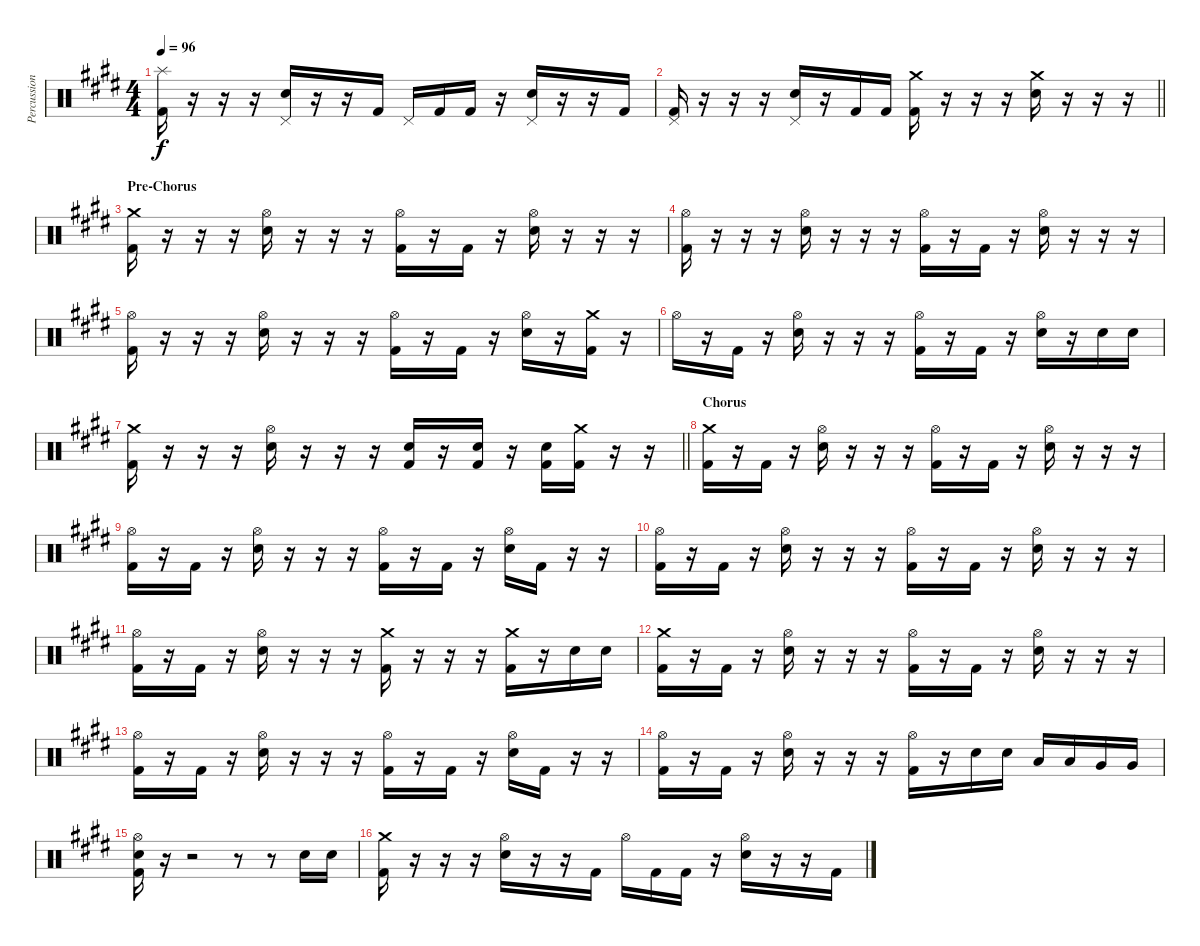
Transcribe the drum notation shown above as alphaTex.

\track ("Percussioni" "Percussion") {instrument percussion}
\staff {score}
\articulation defaults
\ts (4 4)
\tempo 96
\clef neutral
\ks c#minor
("Kick (hit) 2" "Splash (hit)").16{dy f} r.16 r.16 r.16 ("Electric Snare (hit)" "Pedal Hi-Hat (hit)").16 r.16 r.16 "Kick (hit) 2".16 "Pedal Hi-Hat (hit)".16 "Kick (hit) 2".16 "Kick (hit) 2".16 r.16 ("Electric Snare (hit)" "Pedal Hi-Hat (hit)").16 r.16 r.16 "Kick (hit) 2".16 |
\barLineRight lightlight
("Kick (hit) 2" "Pedal Hi-Hat (hit)").16 r.16 r.16 r.16 ("Electric Snare (hit)" "Pedal Hi-Hat (hit)").16 r.16 "Kick (hit) 2".16 "Kick (hit) 2".16 ("Kick (hit) 2" "Crash medium (hit)").16 r.16 r.16 r.16 ("Electric Snare (hit)" "Crash medium (hit)").16 r.16 r.16 r.16 |
\section ("" "Pre-Chorus")
("Kick (hit) 2" "Crash medium (hit)").16 r.16 r.16 r.16 ("Electric Snare (hit)" "Hi-Hat (open)").16 r.16 r.16 r.16 ("Kick (hit) 2" "Hi-Hat (open)").16 r.16 "Kick (hit) 2".16 r.16 ("Electric Snare (hit)" "Hi-Hat (open)").16 r.16 r.16 r.16 |
("Kick (hit) 2" "Hi-Hat (open)").16 r.16 r.16 r.16 ("Electric Snare (hit)" "Hi-Hat (open)").16 r.16 r.16 r.16 ("Kick (hit) 2" "Hi-Hat (open)").16 r.16 "Kick (hit) 2".16 r.16 ("Electric Snare (hit)" "Hi-Hat (open)").16 r.16 r.16 r.16 |
("Kick (hit) 2" "Hi-Hat (open)").16 r.16 r.16 r.16 ("Electric Snare (hit)" "Hi-Hat (open)").16 r.16 r.16 r.16 ("Kick (hit) 2" "Hi-Hat (open)").16 r.16 "Kick (hit) 2".16 r.16 ("Electric Snare (hit)" "Hi-Hat (open)").16 r.16 ("Kick (hit) 2" "Crash medium (hit)").16 r.16 |
"Hi-Hat (open)".16 r.16 "Kick (hit) 2".16 r.16 ("Electric Snare (hit)" "Hi-Hat (open)").16 r.16 r.16 r.16 ("Kick (hit) 2" "Hi-Hat (open)").16 r.16 "Kick (hit) 2".16 r.16 ("Electric Snare (hit)" "Hi-Hat (open)").16 r.16 "Electric Snare (hit)".16 "Electric Snare (hit)".16 |
\barLineRight lightlight
\ks e
("Kick (hit) 2" "Crash medium (hit)").16 r.16 r.16 r.16 ("Electric Snare (hit)" "Hi-Hat (open)").16 r.16 r.16 r.16 ("Kick (hit) 2" "Electric Snare (hit)").16 r.16 ("Electric Snare (hit)" "Kick (hit) 2").16 r.16 ("Electric Snare (hit)" "Kick (hit) 2").16 ("Kick (hit) 2" "Crash medium (hit)").16 r.16 r.16 |
\section ("" "Chorus")
\ks c#minor
("Kick (hit) 2" "Crash medium (hit)").16 r.16 "Kick (hit) 2".16 r.16 ("Electric Snare (hit)" "Hi-Hat (open)").16 r.16 r.16 r.16 ("Kick (hit) 2" "Hi-Hat (open)").16 r.16 "Kick (hit) 2".16 r.16 ("Electric Snare (hit)" "Hi-Hat (open)").16 r.16 r.16 r.16 |
("Kick (hit) 2" "Hi-Hat (open)").16 r.16 "Kick (hit) 2".16 r.16 ("Electric Snare (hit)" "Hi-Hat (open)").16 r.16 r.16 r.16 ("Kick (hit) 2" "Hi-Hat (open)").16 r.16 "Kick (hit) 2".16 r.16 ("Electric Snare (hit)" "Hi-Hat (open)").16 "Kick (hit) 2".16 r.16 r.16 |
("Kick (hit) 2" "Hi-Hat (open)").16 r.16 "Kick (hit) 2".16 r.16 ("Electric Snare (hit)" "Hi-Hat (open)").16 r.16 r.16 r.16 ("Kick (hit) 2" "Hi-Hat (open)").16 r.16 "Kick (hit) 2".16 r.16 ("Electric Snare (hit)" "Hi-Hat (open)").16 r.16 r.16 r.16 |
\ks e
("Kick (hit) 2" "Hi-Hat (open)").16 r.16 "Kick (hit) 2".16 r.16 ("Electric Snare (hit)" "Hi-Hat (open)").16 r.16 r.16 r.16 ("Kick (hit) 2" "Crash medium (hit)").16 r.16 r.16 r.16 ("Kick (hit) 2" "Crash medium (hit)").16 r.16 "Electric Snare (hit)".16 "Electric Snare (hit)".16 |
\ks c#minor
("Kick (hit) 2" "Crash medium (hit)").16 r.16 "Kick (hit) 2".16 r.16 ("Electric Snare (hit)" "Hi-Hat (open)").16 r.16 r.16 r.16 ("Kick (hit) 2" "Hi-Hat (open)").16 r.16 "Kick (hit) 2".16 r.16 ("Electric Snare (hit)" "Hi-Hat (open)").16 r.16 r.16 r.16 |
("Kick (hit) 2" "Hi-Hat (open)").16 r.16 "Kick (hit) 2".16 r.16 ("Electric Snare (hit)" "Hi-Hat (open)").16 r.16 r.16 r.16 ("Kick (hit) 2" "Hi-Hat (open)").16 r.16 "Kick (hit) 2".16 r.16 ("Electric Snare (hit)" "Hi-Hat (open)").16 "Kick (hit) 2".16 r.16 r.16 |
("Kick (hit) 2" "Hi-Hat (open)").16 r.16 "Kick (hit) 2".16 r.16 ("Electric Snare (hit)" "Hi-Hat (open)").16 r.16 r.16 r.16 ("Kick (hit) 2" "Hi-Hat (open)").16 r.16 "Electric Snare (hit)".16 "Electric Snare (hit)".16 "Low Tom (hit)".16 "Low Tom (hit)".16 "Very Low Tom (hit)".16 "Very Low Tom (hit)".16 |
\ks e
("Kick (hit) 2" "Electric Snare (hit)" "Hi-Hat (open)").16 r.16 r.2 r.8 r.8 "Electric Snare (hit)".16 "Electric Snare (hit)".16 |
\ks c#minor
("Kick (hit) 2" "Crash medium (hit)").16 r.16 r.16 r.16 ("Electric Snare (hit)" "Hi-Hat (open)").16 r.16 r.16 "Kick (hit) 2".16 "Hi-Hat (open)".16 "Kick (hit) 2".16 "Kick (hit) 2".16 r.16 ("Electric Snare (hit)" "Hi-Hat (open)").16 r.16 r.16 "Kick (hit) 2".16
